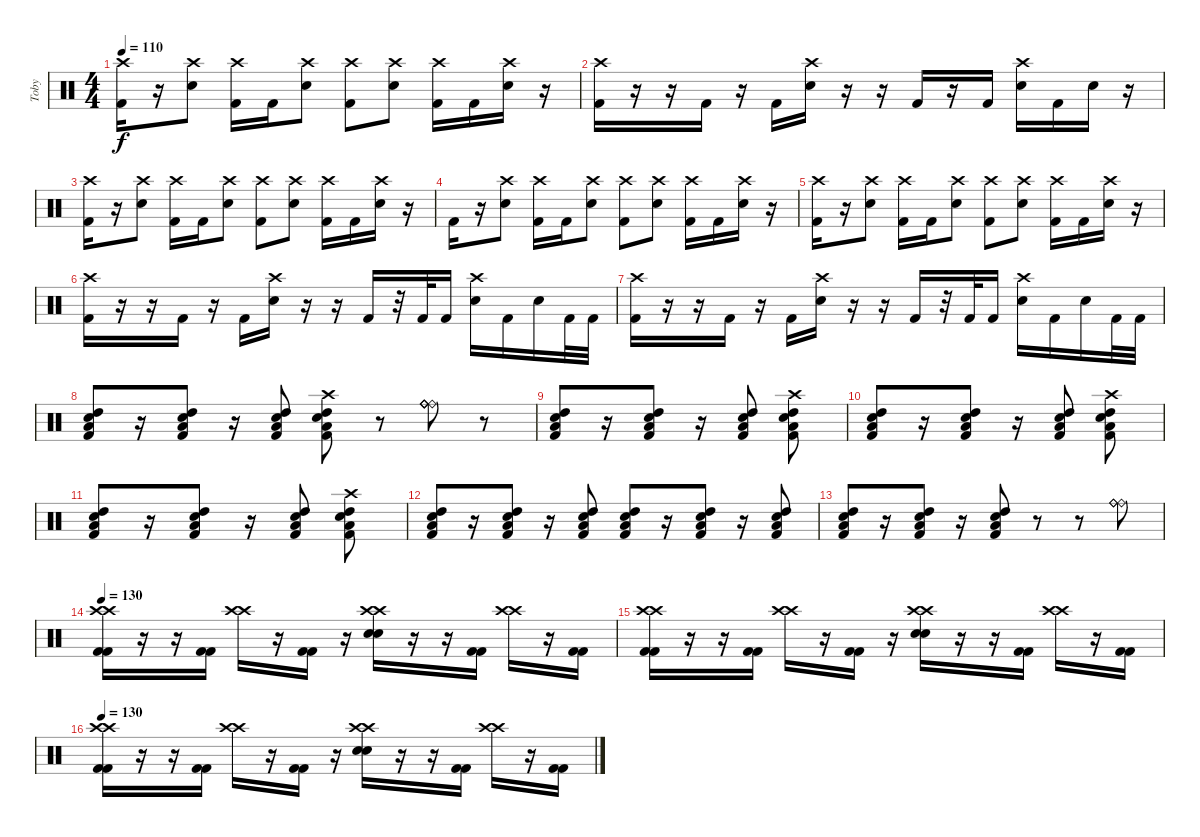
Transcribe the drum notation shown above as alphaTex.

\track ("Toby" "Toby") {instrument percussion}
\staff {score}
\articulation defaults
\ts (4 4)
\tempo 110
\clef neutral
\ks c
("Crash high (hit)" "Kick (hit) 2").16{dy f} r.16 ("Crash high (hit)" "Electric Snare (hit)").8 ("Crash high (hit)" "Kick (hit) 2").16 "Kick (hit) 2".16 ("Crash high (hit)" "Electric Snare (hit)").8 ("Crash high (hit)" "Kick (hit) 2").8 ("Crash high (hit)" "Electric Snare (hit)").8 ("Crash high (hit)" "Kick (hit) 2").16 "Kick (hit) 2".16 ("Crash high (hit)" "Electric Snare (hit)").16 r.16 |
("Crash high (hit)" "Kick (hit) 2").16 r.16 r.16 "Kick (hit) 2".16 r.16 "Kick (hit) 2".16 ("Crash high (hit)" "Electric Snare (hit)").16 r.16 r.16 "Kick (hit) 2".16 r.16 "Kick (hit) 2".16 ("Crash high (hit)" "Electric Snare (hit)").16 "Kick (hit) 2".16 "Electric Snare (hit)".16 r.16 |
("Crash high (hit)" "Kick (hit) 2").16 r.16 ("Crash high (hit)" "Electric Snare (hit)").8 ("Crash high (hit)" "Kick (hit) 2").16 "Kick (hit) 2".16 ("Crash high (hit)" "Electric Snare (hit)").8 ("Crash high (hit)" "Kick (hit) 2").8 ("Crash high (hit)" "Electric Snare (hit)").8 ("Crash high (hit)" "Kick (hit) 2").16 "Kick (hit) 2".16 ("Crash high (hit)" "Electric Snare (hit)").16 r.16 |
"Kick (hit) 2".16 r.16 ("Crash high (hit)" "Electric Snare (hit)").8 ("Crash high (hit)" "Kick (hit) 2").16 "Kick (hit) 2".16 ("Crash high (hit)" "Electric Snare (hit)").8 ("Crash high (hit)" "Kick (hit) 2").8 ("Crash high (hit)" "Electric Snare (hit)").8 ("Crash high (hit)" "Kick (hit) 2").16 "Kick (hit) 2".16 ("Crash high (hit)" "Electric Snare (hit)").16 r.16 |
("Crash high (hit)" "Kick (hit) 2").16 r.16 ("Crash high (hit)" "Electric Snare (hit)").8 ("Crash high (hit)" "Kick (hit) 2").16 "Kick (hit) 2".16 ("Crash high (hit)" "Electric Snare (hit)").8 ("Crash high (hit)" "Kick (hit) 2").8 ("Crash high (hit)" "Electric Snare (hit)").8 ("Crash high (hit)" "Kick (hit) 2").16 "Kick (hit) 2".16 ("Crash high (hit)" "Electric Snare (hit)").16 r.16 |
("Crash high (hit)" "Kick (hit) 2").16 r.16 r.16 "Kick (hit) 2".16 r.16 "Kick (hit) 2".16 ("Crash high (hit)" "Electric Snare (hit)").16 r.16 r.16 "Kick (hit) 2".16 r.32 "Kick (hit) 2".32 "Kick (hit) 2".16 ("Crash high (hit)" "Electric Snare (hit)").16 "Kick (hit) 2".16 "Electric Snare (hit)".16 "Kick (hit) 2".32 "Kick (hit) 2".32 |
("Crash high (hit)" "Kick (hit) 2").16 r.16 r.16 "Kick (hit) 2".16 r.16 "Kick (hit) 2".16 ("Crash high (hit)" "Electric Snare (hit)").16 r.16 r.16 "Kick (hit) 2".16 r.32 "Kick (hit) 2".32 "Kick (hit) 2".16 ("Crash high (hit)" "Electric Snare (hit)").16 "Kick (hit) 2".16 "Electric Snare (hit)".16 "Kick (hit) 2".32 "Kick (hit) 2".32 |
("Electric Snare (hit)" "High Tom (hit)" "Kick (hit) 2" "Low Tom (hit)").8 r.16 ("Electric Snare (hit)" "High Tom (hit)" "Kick (hit) 2" "Low Tom (hit)").8 r.16 ("Electric Snare (hit)" "High Tom (hit)" "Kick (hit) 2" "Low Tom (hit)").8 ("Electric Snare (hit)" "High Tom (hit)" "Kick (hit) 2" "Crash high (hit)" "Low Tom (hit)").8 r.8 ("Ride (bell)" "Ride (bell)" "Ride (bell)" "Ride (bell)" "Ride (bell)").8 r.8 |
("Electric Snare (hit)" "High Tom (hit)" "Kick (hit) 2" "Low Tom (hit)").8 r.16 ("Electric Snare (hit)" "High Tom (hit)" "Kick (hit) 2" "Low Tom (hit)").8 r.16 ("Electric Snare (hit)" "High Tom (hit)" "Kick (hit) 2" "Low Tom (hit)").8 ("Electric Snare (hit)" "High Tom (hit)" "Kick (hit) 2" "Crash high (hit)" "Low Tom (hit)").8 |
("Electric Snare (hit)" "High Tom (hit)" "Kick (hit) 2" "Low Tom (hit)").8 r.16 ("Electric Snare (hit)" "High Tom (hit)" "Kick (hit) 2" "Low Tom (hit)").8 r.16 ("Electric Snare (hit)" "High Tom (hit)" "Kick (hit) 2" "Low Tom (hit)").8 ("Electric Snare (hit)" "High Tom (hit)" "Kick (hit) 2" "Crash high (hit)" "Low Tom (hit)").8 |
("Electric Snare (hit)" "High Tom (hit)" "Kick (hit) 2" "Low Tom (hit)").8 r.16 ("Electric Snare (hit)" "High Tom (hit)" "Kick (hit) 2" "Low Tom (hit)").8 r.16 ("Electric Snare (hit)" "High Tom (hit)" "Kick (hit) 2" "Low Tom (hit)").8 ("Electric Snare (hit)" "High Tom (hit)" "Kick (hit) 2" "Crash high (hit)" "Low Tom (hit)").8 |
("Electric Snare (hit)" "High Tom (hit)" "Kick (hit) 2" "Low Tom (hit)").8 r.16 ("Electric Snare (hit)" "High Tom (hit)" "Kick (hit) 2" "Low Tom (hit)").8 r.16 ("Electric Snare (hit)" "High Tom (hit)" "Kick (hit) 2" "Low Tom (hit)").8 ("Electric Snare (hit)" "High Tom (hit)" "Kick (hit) 2" "Low Tom (hit)").8 r.16 ("Electric Snare (hit)" "High Tom (hit)" "Kick (hit) 2" "Low Tom (hit)").8 r.16 ("Electric Snare (hit)" "High Tom (hit)" "Kick (hit) 2" "Low Tom (hit)").8 |
("Electric Snare (hit)" "High Tom (hit)" "Kick (hit) 2" "Low Tom (hit)").8 r.16 ("Electric Snare (hit)" "High Tom (hit)" "Kick (hit) 2" "Low Tom (hit)").8 r.16 ("Electric Snare (hit)" "High Tom (hit)" "Kick (hit) 2" "Low Tom (hit)").8 r.8 r.8 ("Ride (bell)" "Ride (bell)" "Ride (bell)").8 |
\tempo 130
("Crash high (hit)" "Crash high (hit)" "Kick (hit) 2" "Kick (hit) 2").16 r.16 r.16 ("Kick (hit) 2" "Kick (hit) 2").16 ("Crash high (hit)" "Crash high (hit)").16 r.16 ("Kick (hit) 2" "Kick (hit) 2").16 r.16 ("Crash high (hit)" "Crash high (hit)" "Electric Snare (hit)" "Electric Snare (hit)").16 r.16 r.16 ("Kick (hit) 2" "Kick (hit) 2").16 ("Crash high (hit)" "Crash high (hit)").16 r.16 ("Kick (hit) 2" "Kick (hit) 2").16 |
("Crash high (hit)" "Crash high (hit)" "Kick (hit) 2" "Kick (hit) 2").16 r.16 r.16 ("Kick (hit) 2" "Kick (hit) 2").16 ("Crash high (hit)" "Crash high (hit)").16 r.16 ("Kick (hit) 2" "Kick (hit) 2").16 r.16 ("Crash high (hit)" "Crash high (hit)" "Electric Snare (hit)" "Electric Snare (hit)").16 r.16 r.16 ("Kick (hit) 2" "Kick (hit) 2").16 ("Crash high (hit)" "Crash high (hit)").16 r.16 ("Kick (hit) 2" "Kick (hit) 2").16 |
\tempo 130
("Crash high (hit)" "Crash high (hit)" "Kick (hit) 2" "Kick (hit) 2").16 r.16 r.16 ("Kick (hit) 2" "Kick (hit) 2").16 ("Crash high (hit)" "Crash high (hit)").16 r.16 ("Kick (hit) 2" "Kick (hit) 2").16 r.16 ("Crash high (hit)" "Crash high (hit)" "Electric Snare (hit)" "Electric Snare (hit)").16 r.16 r.16 ("Kick (hit) 2" "Kick (hit) 2").16 ("Crash high (hit)" "Crash high (hit)").16 r.16 ("Kick (hit) 2" "Kick (hit) 2").16
